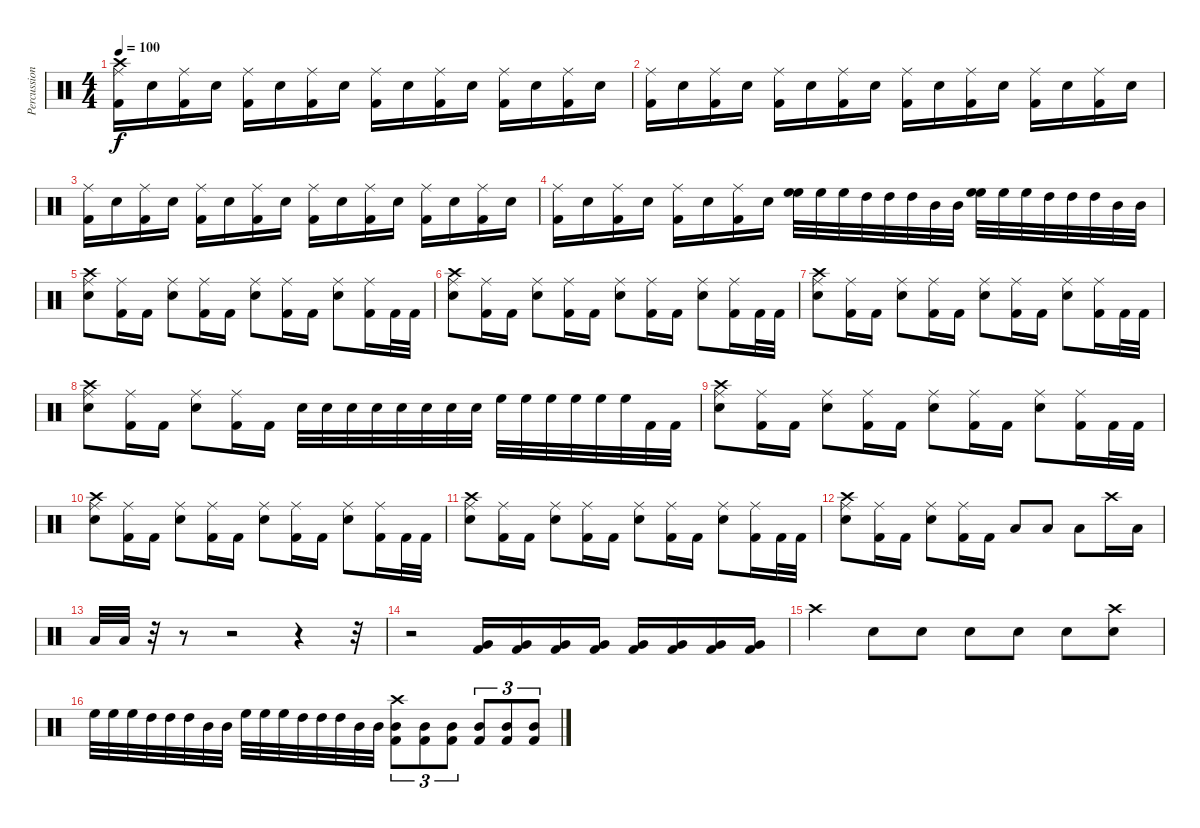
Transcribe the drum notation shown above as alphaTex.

\track ("Percussion" "Percussion") {instrument percussion}
\staff {score}
\articulation defaults
\ts (4 4)
\tempo 100
\clef neutral
\ks c
("Crash high (hit)" "Ride (middle)" "Kick (hit) 2").16{dy f} "Snare (hit) 2".16 ("Ride (middle)" "Kick (hit) 2").16 "Snare (hit) 2".16 ("Ride (middle)" "Kick (hit) 2").16 "Snare (hit) 2".16 ("Ride (middle)" "Kick (hit) 2").16 "Snare (hit) 2".16 ("Ride (middle)" "Kick (hit) 2").16 "Snare (hit) 2".16 ("Ride (middle)" "Kick (hit) 2").16 "Snare (hit) 2".16 ("Ride (middle)" "Kick (hit) 2").16 "Snare (hit) 2".16 ("Ride (middle)" "Kick (hit) 2").16 "Snare (hit) 2".16 |
("Ride (middle)" "Kick (hit) 2").16 "Snare (hit) 2".16 ("Ride (middle)" "Kick (hit) 2").16 "Snare (hit) 2".16 ("Ride (middle)" "Kick (hit) 2").16 "Snare (hit) 2".16 ("Ride (middle)" "Kick (hit) 2").16 "Snare (hit) 2".16 ("Ride (middle)" "Kick (hit) 2").16 "Snare (hit) 2".16 ("Ride (middle)" "Kick (hit) 2").16 "Snare (hit) 2".16 ("Ride (middle)" "Kick (hit) 2").16 "Snare (hit) 2".16 ("Ride (middle)" "Kick (hit) 2").16 "Snare (hit) 2".16 |
("Ride (middle)" "Kick (hit) 2").16 "Snare (hit) 2".16 ("Ride (middle)" "Kick (hit) 2").16 "Snare (hit) 2".16 ("Ride (middle)" "Kick (hit) 2").16 "Snare (hit) 2".16 ("Ride (middle)" "Kick (hit) 2").16 "Snare (hit) 2".16 ("Ride (middle)" "Kick (hit) 2").16 "Snare (hit) 2".16 ("Ride (middle)" "Kick (hit) 2").16 "Snare (hit) 2".16 ("Ride (middle)" "Kick (hit) 2").16 "Snare (hit) 2".16 ("Ride (middle)" "Kick (hit) 2").16 "Snare (hit) 2".16 |
("Ride (middle)" "Kick (hit) 2").16 "Snare (hit) 2".16 ("Ride (middle)" "Kick (hit) 2").16 "Snare (hit) 2".16 ("Ride (middle)" "Kick (hit) 2").16 "Snare (hit) 2".16 ("Ride (middle)" "Kick (hit) 2").16 "Snare (hit) 2".16 ("High Floor Tom (hit)" "High Floor Tom (hit)").32 "High Floor Tom (hit)".32 "High Floor Tom (hit)".32 "High Tom (hit)".32 "High Tom (hit)".32 "High Tom (hit)".32 "Mid Tom (hit)".32 "Mid Tom (hit)".32 ("High Floor Tom (hit)" "High Floor Tom (hit)").32 "High Floor Tom (hit)".32 "High Floor Tom (hit)".32 "High Tom (hit)".32 "High Tom (hit)".32 "High Tom (hit)".32 "Mid Tom (hit)".32 "Mid Tom (hit)".32 |
("Crash high (hit)" "Ride (middle)" "Snare (hit) 2").8 ("Ride (middle)" "Kick (hit) 2").16 "Kick (hit) 2".16 ("Ride (middle)" "Snare (hit) 2").8 ("Ride (middle)" "Kick (hit) 2").16 "Kick (hit) 2".16 ("Ride (middle)" "Snare (hit) 2").8 ("Ride (middle)" "Kick (hit) 2").16 "Kick (hit) 2".16 ("Ride (middle)" "Snare (hit) 2").8 ("Ride (middle)" "Kick (hit) 2").16 "Kick (hit) 2".32 "Kick (hit) 2".32 |
("Crash high (hit)" "Ride (middle)" "Snare (hit) 2").8 ("Ride (middle)" "Kick (hit) 2").16 "Kick (hit) 2".16 ("Ride (middle)" "Snare (hit) 2").8 ("Ride (middle)" "Kick (hit) 2").16 "Kick (hit) 2".16 ("Ride (middle)" "Snare (hit) 2").8 ("Ride (middle)" "Kick (hit) 2").16 "Kick (hit) 2".16 ("Ride (middle)" "Snare (hit) 2").8 ("Ride (middle)" "Kick (hit) 2").16 "Kick (hit) 2".32 "Kick (hit) 2".32 |
("Crash high (hit)" "Ride (middle)" "Snare (hit) 2").8 ("Ride (middle)" "Kick (hit) 2").16 "Kick (hit) 2".16 ("Ride (middle)" "Snare (hit) 2").8 ("Ride (middle)" "Kick (hit) 2").16 "Kick (hit) 2".16 ("Ride (middle)" "Snare (hit) 2").8 ("Ride (middle)" "Kick (hit) 2").16 "Kick (hit) 2".16 ("Ride (middle)" "Snare (hit) 2").8 ("Ride (middle)" "Kick (hit) 2").16 "Kick (hit) 2".32 "Kick (hit) 2".32 |
("Crash high (hit)" "Ride (middle)" "Snare (hit) 2").8 ("Ride (middle)" "Kick (hit) 2").16 "Kick (hit) 2".16 ("Ride (middle)" "Snare (hit) 2").8 ("Ride (middle)" "Kick (hit) 2").16 "Kick (hit) 2".16 "Snare (hit) 2".32 "Snare (hit) 2".32 "Snare (hit) 2".32 "Snare (hit) 2".32 "Snare (hit) 2".32 "Snare (hit) 2".32 "Snare (hit) 2".32 "Snare (hit) 2".32 "High Floor Tom (hit)".32 "High Floor Tom (hit)".32 "High Floor Tom (hit)".32 "High Floor Tom (hit)".32 "High Floor Tom (hit)".32 "High Floor Tom (hit)".32 "Kick (hit) 2".32 "Kick (hit) 2".32 |
("Crash high (hit)" "Ride (middle)" "Snare (hit) 2").8 ("Ride (middle)" "Kick (hit) 2").16 "Kick (hit) 2".16 ("Ride (middle)" "Snare (hit) 2").8 ("Ride (middle)" "Kick (hit) 2").16 "Kick (hit) 2".16 ("Ride (middle)" "Snare (hit) 2").8 ("Ride (middle)" "Kick (hit) 2").16 "Kick (hit) 2".16 ("Ride (middle)" "Snare (hit) 2").8 ("Ride (middle)" "Kick (hit) 2").16 "Kick (hit) 2".32 "Kick (hit) 2".32 |
("Crash high (hit)" "Ride (middle)" "Snare (hit) 2").8 ("Ride (middle)" "Kick (hit) 2").16 "Kick (hit) 2".16 ("Ride (middle)" "Snare (hit) 2").8 ("Ride (middle)" "Kick (hit) 2").16 "Kick (hit) 2".16 ("Ride (middle)" "Snare (hit) 2").8 ("Ride (middle)" "Kick (hit) 2").16 "Kick (hit) 2".16 ("Ride (middle)" "Snare (hit) 2").8 ("Ride (middle)" "Kick (hit) 2").16 "Kick (hit) 2".32 "Kick (hit) 2".32 |
("Crash high (hit)" "Ride (middle)" "Snare (hit) 2").8 ("Ride (middle)" "Kick (hit) 2").16 "Kick (hit) 2".16 ("Ride (middle)" "Snare (hit) 2").8 ("Ride (middle)" "Kick (hit) 2").16 "Kick (hit) 2".16 ("Ride (middle)" "Snare (hit) 2").8 ("Ride (middle)" "Kick (hit) 2").16 "Kick (hit) 2".16 ("Ride (middle)" "Snare (hit) 2").8 ("Ride (middle)" "Kick (hit) 2").16 "Kick (hit) 2".32 "Kick (hit) 2".32 |
("Crash high (hit)" "Ride (middle)" "Snare (hit) 2").8 ("Ride (middle)" "Kick (hit) 2").16 "Kick (hit) 2".16 ("Ride (middle)" "Snare (hit) 2").8 ("Ride (middle)" "Kick (hit) 2").16 "Kick (hit) 2".16 "Low Tom (hit)".8 "Low Tom (hit)".8 "Low Tom (hit)".8 "Crash high (hit)".16 "Low Tom (hit)".16 |
"Low Tom (hit)".32 "Low Tom (hit)".32 r.32 r.8 r.2 r.4 r.32 |
r.2 ("Very Low Tom (hit)" "Kick (hit) 2").16 ("Very Low Tom (hit)" "Kick (hit) 2").16 ("Very Low Tom (hit)" "Kick (hit) 2").16 ("Very Low Tom (hit)" "Kick (hit) 2").16 ("Very Low Tom (hit)" "Kick (hit) 2").16 ("Very Low Tom (hit)" "Kick (hit) 2").16 ("Very Low Tom (hit)" "Kick (hit) 2").16 ("Very Low Tom (hit)" "Kick (hit) 2").16 |
"Crash high (hit)".4 "Snare (hit) 2".8 "Snare (hit) 2".8 "Snare (hit) 2".8 "Snare (hit) 2".8 "Snare (hit) 2".8 ("Snare (hit) 2" "Crash high (hit)").8 |
"High Floor Tom (hit)".32 "High Floor Tom (hit)".32 "High Floor Tom (hit)".32 "High Tom (hit)".32 "High Tom (hit)".32 "High Tom (hit)".32 "Mid Tom (hit)".32 "Mid Tom (hit)".32 "High Floor Tom (hit)".32 "High Floor Tom (hit)".32 "High Floor Tom (hit)".32 "High Tom (hit)".32 "High Tom (hit)".32 "High Tom (hit)".32 "Mid Tom (hit)".32 "Mid Tom (hit)".32 ("Crash high (hit)" "Mid Tom (hit)" "Kick (hit) 2").8{tu (3 2)} ("Mid Tom (hit)" "Kick (hit) 2").8{tu (3 2)} ("Mid Tom (hit)" "Kick (hit) 2").8{tu (3 2)} ("Mid Tom (hit)" "Kick (hit) 2").8{tu (3 2)} ("Mid Tom (hit)" "Kick (hit) 2").8{tu (3 2)} ("Mid Tom (hit)" "Kick (hit) 2").8{tu (3 2)}
